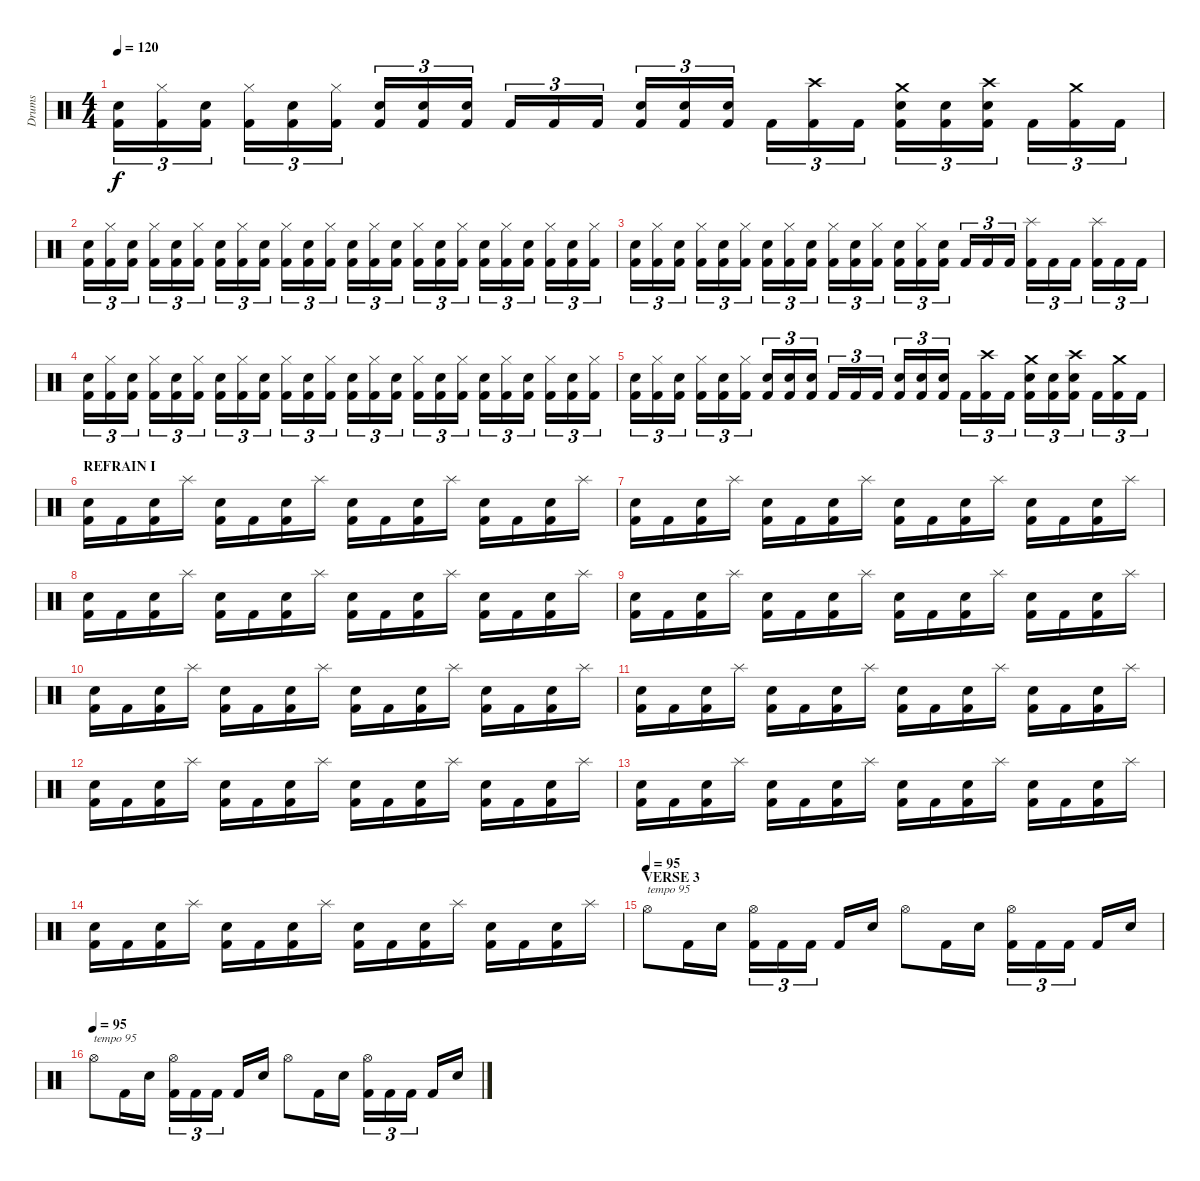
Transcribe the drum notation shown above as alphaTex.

\track ("Drums" "Drums") {instrument percussion}
\staff {score}
\articulation defaults
\ts (4 4)
\tempo 120
\clef neutral
\ks c
("Electric Snare (hit)" "Kick (hit) 2").16{tu (3 2) dy f} ("Hi-Hat (closed)" "Kick (hit) 2").16{tu (3 2)} ("Electric Snare (hit)" "Kick (hit) 2").16{tu (3 2)} ("Hi-Hat (closed)" "Kick (hit) 2").16{tu (3 2)} ("Electric Snare (hit)" "Kick (hit) 2").16{tu (3 2)} ("Hi-Hat (closed)" "Kick (hit) 2").16{tu (3 2)} ("Electric Snare (hit)" "Kick (hit) 2").16{tu (3 2)} ("Electric Snare (hit)" "Kick (hit) 2").16{tu (3 2)} ("Electric Snare (hit)" "Kick (hit) 2").16{tu (3 2)} "Kick (hit) 2".16{tu (3 2)} "Kick (hit) 2".16{tu (3 2)} "Kick (hit) 2".16{tu (3 2)} ("Electric Snare (hit)" "Kick (hit) 2").16{tu (3 2)} ("Electric Snare (hit)" "Kick (hit) 2").16{tu (3 2)} ("Electric Snare (hit)" "Kick (hit) 2").16{tu (3 2)} "Kick (hit) 2".16{tu (3 2)} ("Crash high (hit)" "Kick (hit) 2").16{tu (3 2)} "Kick (hit) 2".16{tu (3 2)} ("Crash medium (hit)" "Electric Snare (hit)" "Kick (hit) 2").16{tu (3 2)} ("Electric Snare (hit)" "Kick (hit) 2").16{tu (3 2)} ("Crash high (hit)" "Electric Snare (hit)" "Kick (hit) 2").16{tu (3 2)} "Kick (hit) 2".16{tu (3 2)} ("Crash medium (hit)" "Kick (hit) 2").16{tu (3 2)} "Kick (hit) 2".16{tu (3 2)} |
("Electric Snare (hit)" "Kick (hit) 2").16{tu (3 2)} ("Hi-Hat (closed)" "Kick (hit) 2").16{tu (3 2)} ("Electric Snare (hit)" "Kick (hit) 2").16{tu (3 2)} ("Hi-Hat (closed)" "Kick (hit) 2").16{tu (3 2)} ("Electric Snare (hit)" "Kick (hit) 2").16{tu (3 2)} ("Hi-Hat (closed)" "Kick (hit) 2").16{tu (3 2)} ("Electric Snare (hit)" "Kick (hit) 2").16{tu (3 2)} ("Hi-Hat (closed)" "Kick (hit) 2").16{tu (3 2)} ("Electric Snare (hit)" "Kick (hit) 2").16{tu (3 2)} ("Hi-Hat (closed)" "Kick (hit) 2").16{tu (3 2)} ("Electric Snare (hit)" "Kick (hit) 2").16{tu (3 2)} ("Hi-Hat (closed)" "Kick (hit) 2").16{tu (3 2)} ("Electric Snare (hit)" "Kick (hit) 2").16{tu (3 2)} ("Hi-Hat (closed)" "Kick (hit) 2").16{tu (3 2)} ("Electric Snare (hit)" "Kick (hit) 2").16{tu (3 2)} ("Hi-Hat (closed)" "Kick (hit) 2").16{tu (3 2)} ("Electric Snare (hit)" "Kick (hit) 2").16{tu (3 2)} ("Hi-Hat (closed)" "Kick (hit) 2").16{tu (3 2)} ("Electric Snare (hit)" "Kick (hit) 2").16{tu (3 2)} ("Hi-Hat (closed)" "Kick (hit) 2").16{tu (3 2)} ("Electric Snare (hit)" "Kick (hit) 2").16{tu (3 2)} ("Hi-Hat (closed)" "Kick (hit) 2").16{tu (3 2)} ("Electric Snare (hit)" "Kick (hit) 2").16{tu (3 2)} ("Hi-Hat (closed)" "Kick (hit) 2").16{tu (3 2)} |
("Electric Snare (hit)" "Kick (hit) 2").16{tu (3 2)} ("Hi-Hat (closed)" "Kick (hit) 2").16{tu (3 2)} ("Electric Snare (hit)" "Kick (hit) 2").16{tu (3 2)} ("Hi-Hat (closed)" "Kick (hit) 2").16{tu (3 2)} ("Electric Snare (hit)" "Kick (hit) 2").16{tu (3 2)} ("Hi-Hat (closed)" "Kick (hit) 2").16{tu (3 2)} ("Electric Snare (hit)" "Kick (hit) 2").16{tu (3 2)} ("Hi-Hat (closed)" "Kick (hit) 2").16{tu (3 2)} ("Electric Snare (hit)" "Kick (hit) 2").16{tu (3 2)} ("Hi-Hat (closed)" "Kick (hit) 2").16{tu (3 2)} ("Electric Snare (hit)" "Kick (hit) 2").16{tu (3 2)} ("Hi-Hat (closed)" "Kick (hit) 2").16{tu (3 2)} ("Electric Snare (hit)" "Kick (hit) 2").16{tu (3 2)} ("Hi-Hat (closed)" "Kick (hit) 2").16{tu (3 2)} ("Electric Snare (hit)" "Kick (hit) 2").16{tu (3 2)} "Kick (hit) 2".16{tu (3 2)} "Kick (hit) 2".16{tu (3 2)} "Kick (hit) 2".16{tu (3 2)} ("Splash (hit)" "Kick (hit) 2").16{tu (3 2)} "Kick (hit) 2".16{tu (3 2)} "Kick (hit) 2".16{tu (3 2)} ("Splash (hit)" "Kick (hit) 2").16{tu (3 2)} "Kick (hit) 2".16{tu (3 2)} "Kick (hit) 2".16{tu (3 2)} |
("Electric Snare (hit)" "Kick (hit) 2").16{tu (3 2)} ("Hi-Hat (closed)" "Kick (hit) 2").16{tu (3 2)} ("Electric Snare (hit)" "Kick (hit) 2").16{tu (3 2)} ("Hi-Hat (closed)" "Kick (hit) 2").16{tu (3 2)} ("Electric Snare (hit)" "Kick (hit) 2").16{tu (3 2)} ("Hi-Hat (closed)" "Kick (hit) 2").16{tu (3 2)} ("Electric Snare (hit)" "Kick (hit) 2").16{tu (3 2)} ("Hi-Hat (closed)" "Kick (hit) 2").16{tu (3 2)} ("Electric Snare (hit)" "Kick (hit) 2").16{tu (3 2)} ("Hi-Hat (closed)" "Kick (hit) 2").16{tu (3 2)} ("Electric Snare (hit)" "Kick (hit) 2").16{tu (3 2)} ("Hi-Hat (closed)" "Kick (hit) 2").16{tu (3 2)} ("Electric Snare (hit)" "Kick (hit) 2").16{tu (3 2)} ("Hi-Hat (closed)" "Kick (hit) 2").16{tu (3 2)} ("Electric Snare (hit)" "Kick (hit) 2").16{tu (3 2)} ("Hi-Hat (closed)" "Kick (hit) 2").16{tu (3 2)} ("Electric Snare (hit)" "Kick (hit) 2").16{tu (3 2)} ("Hi-Hat (closed)" "Kick (hit) 2").16{tu (3 2)} ("Electric Snare (hit)" "Kick (hit) 2").16{tu (3 2)} ("Hi-Hat (closed)" "Kick (hit) 2").16{tu (3 2)} ("Electric Snare (hit)" "Kick (hit) 2").16{tu (3 2)} ("Hi-Hat (closed)" "Kick (hit) 2").16{tu (3 2)} ("Electric Snare (hit)" "Kick (hit) 2").16{tu (3 2)} ("Hi-Hat (closed)" "Kick (hit) 2").16{tu (3 2)} |
("Electric Snare (hit)" "Kick (hit) 2").16{tu (3 2)} ("Hi-Hat (closed)" "Kick (hit) 2").16{tu (3 2)} ("Electric Snare (hit)" "Kick (hit) 2").16{tu (3 2)} ("Hi-Hat (closed)" "Kick (hit) 2").16{tu (3 2)} ("Electric Snare (hit)" "Kick (hit) 2").16{tu (3 2)} ("Hi-Hat (closed)" "Kick (hit) 2").16{tu (3 2)} ("Electric Snare (hit)" "Kick (hit) 2").16{tu (3 2)} ("Electric Snare (hit)" "Kick (hit) 2").16{tu (3 2)} ("Electric Snare (hit)" "Kick (hit) 2").16{tu (3 2)} "Kick (hit) 2".16{tu (3 2)} "Kick (hit) 2".16{tu (3 2)} "Kick (hit) 2".16{tu (3 2)} ("Electric Snare (hit)" "Kick (hit) 2").16{tu (3 2)} ("Electric Snare (hit)" "Kick (hit) 2").16{tu (3 2)} ("Electric Snare (hit)" "Kick (hit) 2").16{tu (3 2)} "Kick (hit) 2".16{tu (3 2)} ("Crash high (hit)" "Kick (hit) 2").16{tu (3 2)} "Kick (hit) 2".16{tu (3 2)} ("Crash medium (hit)" "Electric Snare (hit)" "Kick (hit) 2").16{tu (3 2)} ("Electric Snare (hit)" "Kick (hit) 2").16{tu (3 2)} ("Crash high (hit)" "Electric Snare (hit)" "Kick (hit) 2").16{tu (3 2)} "Kick (hit) 2".16{tu (3 2)} ("Crash medium (hit)" "Kick (hit) 2").16{tu (3 2)} "Kick (hit) 2".16{tu (3 2)} |
\section ("" "REFRAIN I")
("Electric Snare (hit)" "Kick (hit) 2").16 "Kick (hit) 2".16 ("Electric Snare (hit)" "Kick (hit) 2").16 "Splash (hit)".16 ("Electric Snare (hit)" "Kick (hit) 2").16 "Kick (hit) 2".16 ("Electric Snare (hit)" "Kick (hit) 2").16 "Splash (hit)".16 ("Electric Snare (hit)" "Kick (hit) 2").16 "Kick (hit) 2".16 ("Electric Snare (hit)" "Kick (hit) 2").16 "Splash (hit)".16 ("Electric Snare (hit)" "Kick (hit) 2").16 "Kick (hit) 2".16 ("Electric Snare (hit)" "Kick (hit) 2").16 "Splash (hit)".16 |
("Electric Snare (hit)" "Kick (hit) 2").16 "Kick (hit) 2".16 ("Electric Snare (hit)" "Kick (hit) 2").16 "Splash (hit)".16 ("Electric Snare (hit)" "Kick (hit) 2").16 "Kick (hit) 2".16 ("Electric Snare (hit)" "Kick (hit) 2").16 "Splash (hit)".16 ("Electric Snare (hit)" "Kick (hit) 2").16 "Kick (hit) 2".16 ("Electric Snare (hit)" "Kick (hit) 2").16 "Splash (hit)".16 ("Electric Snare (hit)" "Kick (hit) 2").16 "Kick (hit) 2".16 ("Electric Snare (hit)" "Kick (hit) 2").16 "Splash (hit)".16 |
("Electric Snare (hit)" "Kick (hit) 2").16 "Kick (hit) 2".16 ("Electric Snare (hit)" "Kick (hit) 2").16 "Splash (hit)".16 ("Electric Snare (hit)" "Kick (hit) 2").16 "Kick (hit) 2".16 ("Electric Snare (hit)" "Kick (hit) 2").16 "Splash (hit)".16 ("Electric Snare (hit)" "Kick (hit) 2").16 "Kick (hit) 2".16 ("Electric Snare (hit)" "Kick (hit) 2").16 "Splash (hit)".16 ("Electric Snare (hit)" "Kick (hit) 2").16 "Kick (hit) 2".16 ("Electric Snare (hit)" "Kick (hit) 2").16 "Splash (hit)".16 |
("Electric Snare (hit)" "Kick (hit) 2").16 "Kick (hit) 2".16 ("Electric Snare (hit)" "Kick (hit) 2").16 "Splash (hit)".16 ("Electric Snare (hit)" "Kick (hit) 2").16 "Kick (hit) 2".16 ("Electric Snare (hit)" "Kick (hit) 2").16 "Splash (hit)".16 ("Electric Snare (hit)" "Kick (hit) 2").16 "Kick (hit) 2".16 ("Electric Snare (hit)" "Kick (hit) 2").16 "Splash (hit)".16 ("Electric Snare (hit)" "Kick (hit) 2").16 "Kick (hit) 2".16 ("Electric Snare (hit)" "Kick (hit) 2").16 "Splash (hit)".16 |
("Electric Snare (hit)" "Kick (hit) 2").16 "Kick (hit) 2".16 ("Electric Snare (hit)" "Kick (hit) 2").16 "Splash (hit)".16 ("Electric Snare (hit)" "Kick (hit) 2").16 "Kick (hit) 2".16 ("Electric Snare (hit)" "Kick (hit) 2").16 "Splash (hit)".16 ("Electric Snare (hit)" "Kick (hit) 2").16 "Kick (hit) 2".16 ("Electric Snare (hit)" "Kick (hit) 2").16 "Splash (hit)".16 ("Electric Snare (hit)" "Kick (hit) 2").16 "Kick (hit) 2".16 ("Electric Snare (hit)" "Kick (hit) 2").16 "Splash (hit)".16 |
("Electric Snare (hit)" "Kick (hit) 2").16 "Kick (hit) 2".16 ("Electric Snare (hit)" "Kick (hit) 2").16 "Splash (hit)".16 ("Electric Snare (hit)" "Kick (hit) 2").16 "Kick (hit) 2".16 ("Electric Snare (hit)" "Kick (hit) 2").16 "Splash (hit)".16 ("Electric Snare (hit)" "Kick (hit) 2").16 "Kick (hit) 2".16 ("Electric Snare (hit)" "Kick (hit) 2").16 "Splash (hit)".16 ("Electric Snare (hit)" "Kick (hit) 2").16 "Kick (hit) 2".16 ("Electric Snare (hit)" "Kick (hit) 2").16 "Splash (hit)".16 |
("Electric Snare (hit)" "Kick (hit) 2").16 "Kick (hit) 2".16 ("Electric Snare (hit)" "Kick (hit) 2").16 "Splash (hit)".16 ("Electric Snare (hit)" "Kick (hit) 2").16 "Kick (hit) 2".16 ("Electric Snare (hit)" "Kick (hit) 2").16 "Splash (hit)".16 ("Electric Snare (hit)" "Kick (hit) 2").16 "Kick (hit) 2".16 ("Electric Snare (hit)" "Kick (hit) 2").16 "Splash (hit)".16 ("Electric Snare (hit)" "Kick (hit) 2").16 "Kick (hit) 2".16 ("Electric Snare (hit)" "Kick (hit) 2").16 "Splash (hit)".16 |
("Electric Snare (hit)" "Kick (hit) 2").16 "Kick (hit) 2".16 ("Electric Snare (hit)" "Kick (hit) 2").16 "Splash (hit)".16 ("Electric Snare (hit)" "Kick (hit) 2").16 "Kick (hit) 2".16 ("Electric Snare (hit)" "Kick (hit) 2").16 "Splash (hit)".16 ("Electric Snare (hit)" "Kick (hit) 2").16 "Kick (hit) 2".16 ("Electric Snare (hit)" "Kick (hit) 2").16 "Splash (hit)".16 ("Electric Snare (hit)" "Kick (hit) 2").16 "Kick (hit) 2".16 ("Electric Snare (hit)" "Kick (hit) 2").16 "Splash (hit)".16 |
("Electric Snare (hit)" "Kick (hit) 2").16 "Kick (hit) 2".16 ("Electric Snare (hit)" "Kick (hit) 2").16 "Splash (hit)".16 ("Electric Snare (hit)" "Kick (hit) 2").16 "Kick (hit) 2".16 ("Electric Snare (hit)" "Kick (hit) 2").16 "Splash (hit)".16 ("Electric Snare (hit)" "Kick (hit) 2").16 "Kick (hit) 2".16 ("Electric Snare (hit)" "Kick (hit) 2").16 "Splash (hit)".16 ("Electric Snare (hit)" "Kick (hit) 2").16 "Kick (hit) 2".16 ("Electric Snare (hit)" "Kick (hit) 2").16 "Splash (hit)".16 |
\section ("" "VERSE 3")
\tempo (95)
"Hi-Hat (open)".8{txt "tempo 95"} "Kick (hit) 2".16 "Electric Snare (hit)".16 ("Hi-Hat (open)" "Kick (hit) 2").16{tu (3 2)} "Kick (hit) 2".16{tu (3 2)} "Kick (hit) 2".16{tu (3 2)} "Kick (hit) 2".16 "Electric Snare (hit)".16 "Hi-Hat (open)".8 "Kick (hit) 2".16 "Electric Snare (hit)".16 ("Hi-Hat (open)" "Kick (hit) 2").16{tu (3 2)} "Kick (hit) 2".16{tu (3 2)} "Kick (hit) 2".16{tu (3 2)} "Kick (hit) 2".16 "Electric Snare (hit)".16 |
\tempo (95)
"Hi-Hat (open)".8{txt "tempo 95"} "Kick (hit) 2".16 "Electric Snare (hit)".16 ("Hi-Hat (open)" "Kick (hit) 2").16{tu (3 2)} "Kick (hit) 2".16{tu (3 2)} "Kick (hit) 2".16{tu (3 2)} "Kick (hit) 2".16 "Electric Snare (hit)".16 "Hi-Hat (open)".8 "Kick (hit) 2".16 "Electric Snare (hit)".16 ("Hi-Hat (open)" "Kick (hit) 2").16{tu (3 2)} "Kick (hit) 2".16{tu (3 2)} "Kick (hit) 2".16{tu (3 2)} "Kick (hit) 2".16 "Electric Snare (hit)".16
